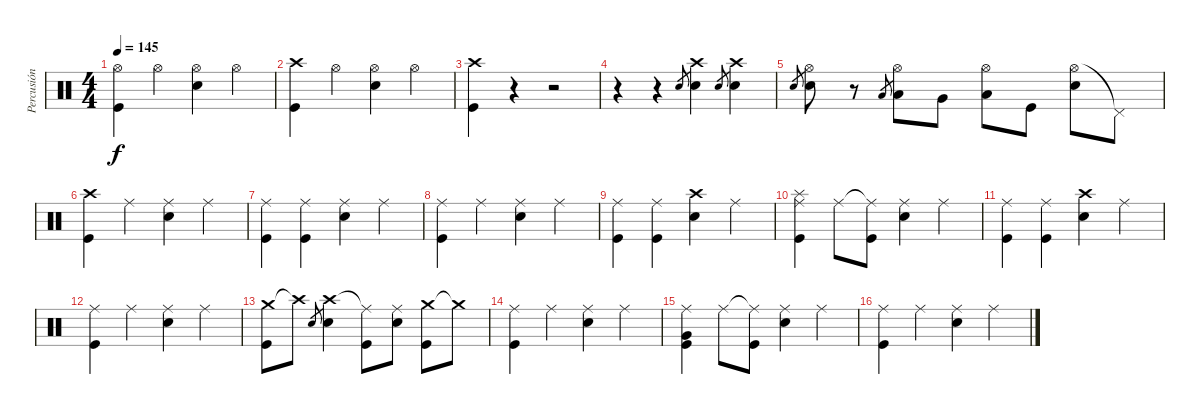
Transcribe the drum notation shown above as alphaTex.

\track ("Percusión" "Percusión") {instrument percussion}
\staff {score}
\articulation defaults
\ts (4 4)
\tempo 145
\clef neutral
\ks c
("Hi-Hat (open)" "Kick (hit)").4{dy f} "Hi-Hat (open)".4 ("Hi-Hat (open)" "Electric Snare (hit)").4 "Hi-Hat (open)".4 |
("Crash high (hit)" "Kick (hit)").4 "Hi-Hat (open)".4 ("Hi-Hat (open)" "Electric Snare (hit)").4 "Hi-Hat (open)".4 |
("Crash high (hit)" "Kick (hit)").4 r.4 r.2 |
r.4 r.4 "Electric Snare (hit)".8{gr} ("Crash high (hit)" "Electric Snare (hit)").4 "Electric Snare (hit)".8{gr} ("Crash high (hit)" "Electric Snare (hit)").4 |
"Electric Snare (hit)".8{gr} ("Hi-Hat (open)" "Electric Snare (hit)").8 r.8 "Low Tom (hit)".8{gr} ("Hi-Hat (open)" "Low Tom (hit)").8 "Very Low Tom (hit)".8 ("Hi-Hat (open)" "Low Floor Tom (hit)").8 "Kick (hit)".8 ("Hi-Hat (open)" "Electric Snare (hit)").8 "Pedal Hi-Hat (hit)"{t}.8 |
("Crash high (hit)" "Kick (hit)").4 "Ride (middle)".4 ("Ride (middle)" "Electric Snare (hit)").4 "Ride (middle)".4 |
("Ride (middle)" "Kick (hit)").4 ("Ride (middle)" "Kick (hit)").4 ("Ride (middle)" "Electric Snare (hit)").4 "Ride (middle)".4 |
("Ride (middle)" "Kick (hit)").4 "Ride (middle)".4 ("Ride (middle)" "Electric Snare (hit)").4 "Ride (middle)".4 |
("Ride (middle)" "Kick (hit)").4 ("Ride (middle)" "Kick (hit)").4 ("Crash high (hit)" "Electric Snare (hit)").4 "Ride (middle)".4 |
("Ride (middle)" "Splash (hit)" "Kick (hit)").4 "Ride (middle)".8 ("Ride (middle)"{t} "Kick (hit)").8 ("Ride (middle)" "Electric Snare (hit)").4 "Ride (middle)".4 |
("Ride (middle)" "Kick (hit)").4 ("Ride (middle)" "Kick (hit)").4 ("Crash high (hit)" "Electric Snare (hit)").4 "Ride (middle)".4 |
("Ride (middle)" "Kick (hit)").4 "Ride (middle)".4 ("Ride (middle)" "Electric Snare (hit)").4 "Ride (middle)".4 |
("Crash medium (hit)" "Kick (hit)").8 "Crash high (hit)"{t}.8 "Electric Snare (hit)".8{gr} ("Crash high (hit)" "Electric Snare (hit)").4 ("Ride (middle)"{t} "Kick (hit)").8 ("Ride (middle)" "Electric Snare (hit)").8 ("Crash medium (hit)" "Kick (hit)").8 "Crash medium (hit)"{t}.8 |
("Ride (middle)" "Kick (hit)").4 "Ride (middle)".4 ("Ride (middle)" "Electric Snare (hit)").4 "Ride (middle)".4 |
("Ride (middle)" "Very Low Tom (hit)" "Kick (hit)").4 "Ride (middle)".8 ("Ride (middle)"{t} "Kick (hit)").8 ("Ride (middle)" "Electric Snare (hit)").4 "Ride (middle)".4 |
("Ride (middle)" "Kick (hit)").4 "Ride (middle)".4 ("Ride (middle)" "Electric Snare (hit)").4 "Ride (middle)".4
